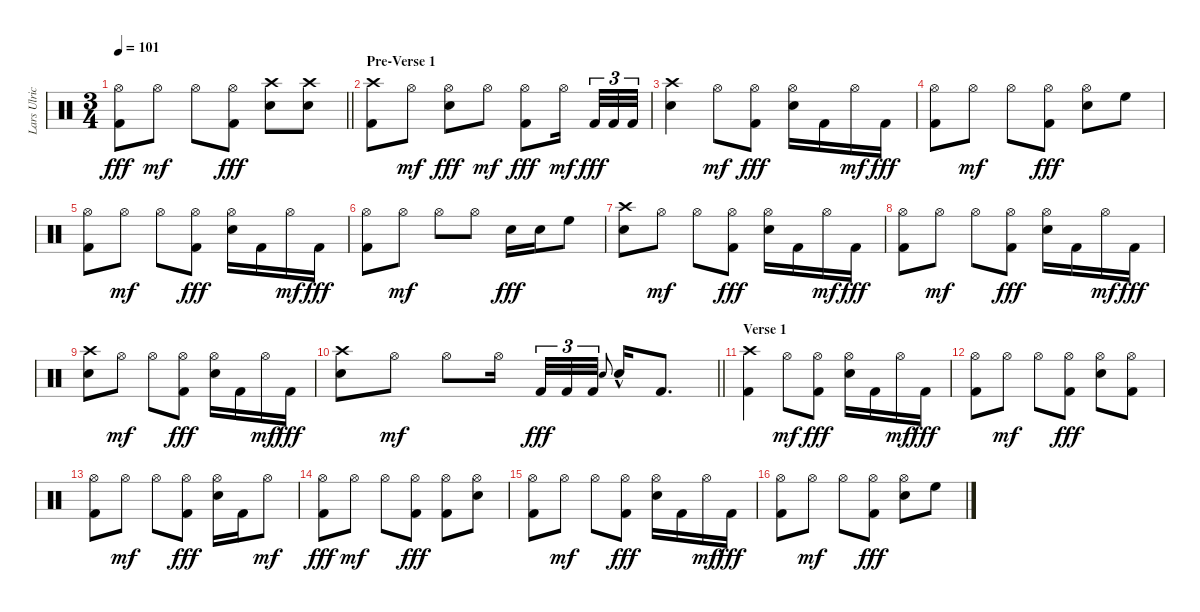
\track ("Lars Ulrich" "Lars Ulric") {instrument percussion}
\staff {score}
\articulation defaults
\ts (3 4)
\tempo 101
\clef neutral
\barLineRight lightlight
\ks c
("Hi-Hat (open)" "Kick (hit) 2").8{dy fff} "Hi-Hat (open)".8{dy mf} "Hi-Hat (open)".8 ("Hi-Hat (open)" "Kick (hit) 2").8{dy fff} ("Crash high (hit)" "Electric Snare (hit)").8 ("Crash high (hit)" "Electric Snare (hit)").8 |
\section ("" "Pre-Verse 1")
("Crash high (hit)" "Kick (hit) 2").8 "Hi-Hat (open)".8{dy mf} ("Hi-Hat (open)" "Electric Snare (hit)").8{dy fff} "Hi-Hat (open)".8{dy mf} ("Hi-Hat (open)" "Kick (hit) 2").8{dy fff} "Hi-Hat (open)".16{dy mf beam splitsecondary} "Kick (hit) 2".32{tu (3 2) dy fff} "Kick (hit) 2".32{tu (3 2)} "Kick (hit) 2".32{tu (3 2)} |
("Crash high (hit)" "Electric Snare (hit)").4 "Hi-Hat (open)".8{dy mf} ("Hi-Hat (open)" "Kick (hit) 2").8{dy fff} ("Hi-Hat (open)" "Electric Snare (hit)").16 "Kick (hit) 2".16 "Hi-Hat (open)".16{dy mf} "Kick (hit) 2".16{dy fff} |
("Hi-Hat (open)" "Kick (hit) 2").8 "Hi-Hat (open)".8{dy mf} "Hi-Hat (open)".8 ("Hi-Hat (open)" "Kick (hit) 2").8{dy fff} ("Hi-Hat (open)" "Electric Snare (hit)").8 "High Floor Tom (hit)".8 |
("Hi-Hat (open)" "Kick (hit) 2").8 "Hi-Hat (open)".8{dy mf} "Hi-Hat (open)".8 ("Hi-Hat (open)" "Kick (hit) 2").8{dy fff} ("Hi-Hat (open)" "Electric Snare (hit)").16 "Kick (hit) 2".16 "Hi-Hat (open)".16{dy mf} "Kick (hit) 2".16{dy fff} |
("Hi-Hat (open)" "Kick (hit) 2").8 "Hi-Hat (open)".8{dy mf} "Hi-Hat (open)".8 "Hi-Hat (open)".8 "Electric Snare (hit)".16{dy fff} "Electric Snare (hit)".16 "High Floor Tom (hit)".8 |
("Crash high (hit)" "Electric Snare (hit)").8 "Hi-Hat (open)".8{dy mf} "Hi-Hat (open)".8 ("Hi-Hat (open)" "Kick (hit) 2").8{dy fff} ("Hi-Hat (open)" "Electric Snare (hit)").16 "Kick (hit) 2".16 "Hi-Hat (open)".16{dy mf} "Kick (hit) 2".16{dy fff} |
("Hi-Hat (open)" "Kick (hit) 2").8 "Hi-Hat (open)".8{dy mf} "Hi-Hat (open)".8 ("Hi-Hat (open)" "Kick (hit) 2").8{dy fff} ("Hi-Hat (open)" "Electric Snare (hit)").16 "Kick (hit) 2".16 "Hi-Hat (open)".16{dy mf} "Kick (hit) 2".16{dy fff} |
("Crash high (hit)" "Electric Snare (hit)").8 "Hi-Hat (open)".8{dy mf} "Hi-Hat (open)".8 ("Hi-Hat (open)" "Kick (hit) 2").8{dy fff} ("Hi-Hat (open)" "Electric Snare (hit)").16 "Kick (hit) 2".16 "Hi-Hat (open)".16{dy mf} "Kick (hit) 2".16{dy fff} |
\barLineRight lightlight
("Crash high (hit)" "Electric Snare (hit)").8 "Hi-Hat (open)".8{dy mf} "Hi-Hat (open)".8 "Hi-Hat (open)".16{beam splitsecondary} "Kick (hit) 2".32{tu (3 2) dy fff} "Kick (hit) 2".32{tu (3 2)} "Kick (hit) 2".32{tu (3 2)} "Electric Snare (hit)".8{gr onbeat} "Electric Snare (hit)"{hac}.16 "Kick (hit) 2".8{d} |
\section ("" "Verse 1")
("Crash high (hit)" "Kick (hit) 2").4 "Hi-Hat (open)".8{dy mf} ("Hi-Hat (open)" "Kick (hit) 2").8{dy fff} ("Hi-Hat (open)" "Electric Snare (hit)").16 "Kick (hit) 2".16 "Hi-Hat (open)".16{dy mf} "Kick (hit) 2".16{dy fff} |
("Hi-Hat (open)" "Kick (hit) 2").8 "Hi-Hat (open)".8{dy mf} "Hi-Hat (open)".8 ("Hi-Hat (open)" "Kick (hit) 2").8{dy fff} ("Hi-Hat (open)" "Electric Snare (hit)").8 ("Hi-Hat (open)" "Kick (hit) 2").8 |
("Hi-Hat (open)" "Kick (hit) 2").8 "Hi-Hat (open)".8{dy mf} "Hi-Hat (open)".8 ("Hi-Hat (open)" "Kick (hit) 2").8{dy fff} ("Hi-Hat (open)" "Electric Snare (hit)").16 "Kick (hit) 2".16 "Hi-Hat (open)".8{dy mf} |
("Hi-Hat (open)" "Kick (hit) 2").8{dy fff} "Hi-Hat (open)".8{dy mf} "Hi-Hat (open)".8 ("Hi-Hat (open)" "Kick (hit) 2").8{dy fff} ("Hi-Hat (open)" "Kick (hit) 2").8 ("Hi-Hat (open)" "Electric Snare (hit)").8 |
("Hi-Hat (open)" "Kick (hit) 2").8 "Hi-Hat (open)".8{dy mf} "Hi-Hat (open)".8 ("Hi-Hat (open)" "Kick (hit) 2").8{dy fff} ("Hi-Hat (open)" "Electric Snare (hit)").16 "Kick (hit) 2".16 "Hi-Hat (open)".16{dy mf} "Kick (hit) 2".16{dy fff} |
("Hi-Hat (open)" "Kick (hit) 2").8 "Hi-Hat (open)".8{dy mf} "Hi-Hat (open)".8 ("Hi-Hat (open)" "Kick (hit) 2").8{dy fff} ("Hi-Hat (open)" "Electric Snare (hit)").8 "High Floor Tom (hit)".8
